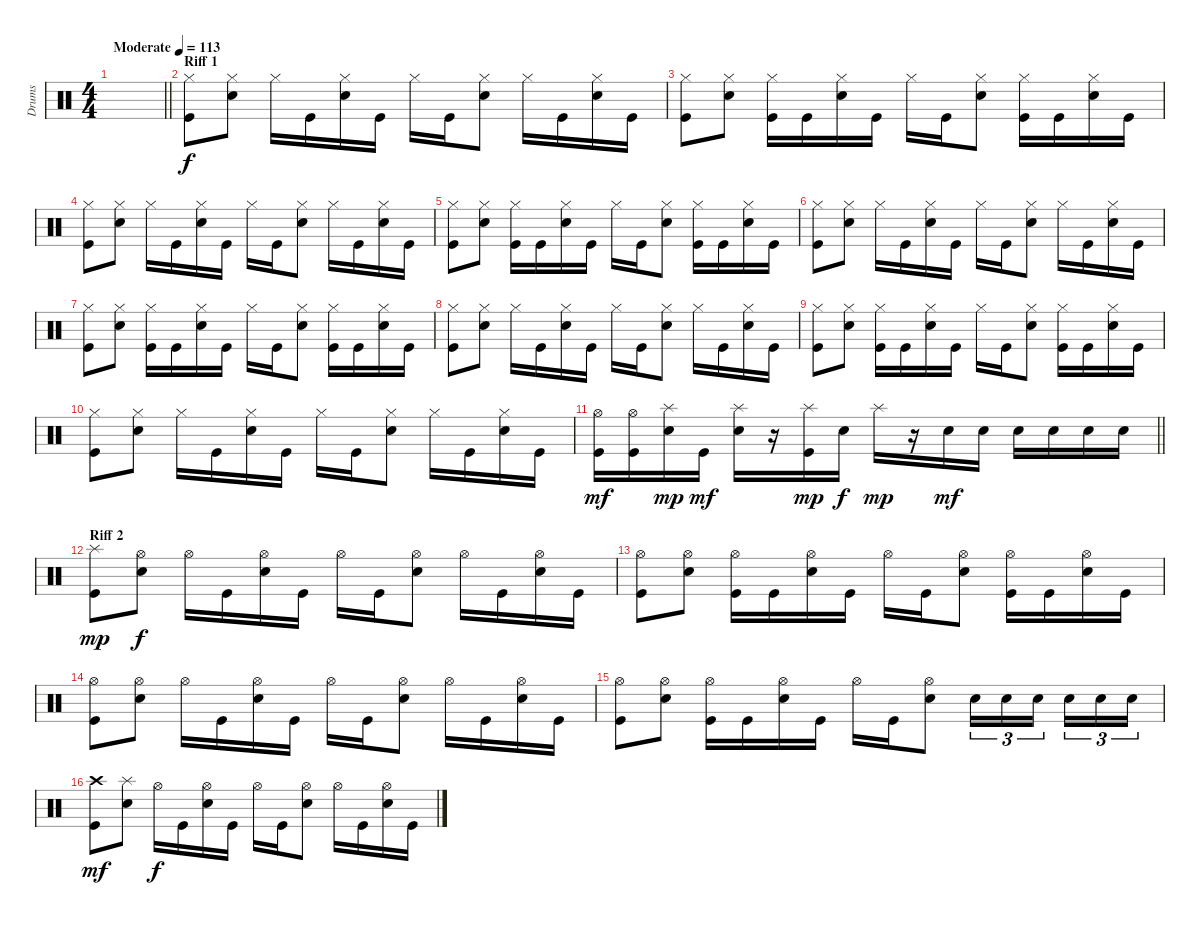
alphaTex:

\track ("Drums" "Drums") {instrument percussion}
\staff {score}
\articulation defaults
\ts (4 4)
\tempo (113 "Moderate")
\clef neutral
\barLineRight lightlight
\ks c
|
\section ("" "Riff 1")
("Hi-Hat (closed)" "Kick (hit)").8 ("Hi-Hat (closed)" "Snare (hit) 2").8 "Hi-Hat (closed)".16 "Kick (hit)".16 ("Hi-Hat (closed)" "Snare (hit) 2").16 "Kick (hit)".16 "Hi-Hat (closed)".16 "Kick (hit)".16 ("Hi-Hat (closed)" "Snare (hit) 2").8 "Hi-Hat (closed)".16 "Kick (hit)".16 ("Hi-Hat (closed)" "Snare (hit) 2").16 "Kick (hit)".16 |
("Hi-Hat (closed)" "Kick (hit)").8 ("Hi-Hat (closed)" "Snare (hit) 2").8 ("Hi-Hat (closed)" "Kick (hit)").16 "Kick (hit)".16 ("Hi-Hat (closed)" "Snare (hit) 2").16 "Kick (hit)".16 "Hi-Hat (closed)".16 "Kick (hit)".16 ("Hi-Hat (closed)" "Snare (hit) 2").8 ("Hi-Hat (closed)" "Kick (hit)").16 "Kick (hit)".16 ("Hi-Hat (closed)" "Snare (hit) 2").16 "Kick (hit)".16 |
("Hi-Hat (closed)" "Kick (hit)").8 ("Hi-Hat (closed)" "Snare (hit) 2").8 "Hi-Hat (closed)".16 "Kick (hit)".16 ("Hi-Hat (closed)" "Snare (hit) 2").16 "Kick (hit)".16 "Hi-Hat (closed)".16 "Kick (hit)".16 ("Hi-Hat (closed)" "Snare (hit) 2").8 "Hi-Hat (closed)".16 "Kick (hit)".16 ("Hi-Hat (closed)" "Snare (hit) 2").16 "Kick (hit)".16 |
("Hi-Hat (closed)" "Kick (hit)").8 ("Hi-Hat (closed)" "Snare (hit) 2").8 ("Hi-Hat (closed)" "Kick (hit)").16 "Kick (hit)".16 ("Hi-Hat (closed)" "Snare (hit) 2").16 "Kick (hit)".16 "Hi-Hat (closed)".16 "Kick (hit)".16 ("Hi-Hat (closed)" "Snare (hit) 2").8 ("Hi-Hat (closed)" "Kick (hit)").16 "Kick (hit)".16 ("Hi-Hat (closed)" "Snare (hit) 2").16 "Kick (hit)".16 |
("Hi-Hat (closed)" "Kick (hit)").8 ("Hi-Hat (closed)" "Snare (hit) 2").8 "Hi-Hat (closed)".16 "Kick (hit)".16 ("Hi-Hat (closed)" "Snare (hit) 2").16 "Kick (hit)".16 "Hi-Hat (closed)".16 "Kick (hit)".16 ("Hi-Hat (closed)" "Snare (hit) 2").8 "Hi-Hat (closed)".16 "Kick (hit)".16 ("Hi-Hat (closed)" "Snare (hit) 2").16 "Kick (hit)".16 |
("Hi-Hat (closed)" "Kick (hit)").8 ("Hi-Hat (closed)" "Snare (hit) 2").8 ("Hi-Hat (closed)" "Kick (hit)").16 "Kick (hit)".16 ("Hi-Hat (closed)" "Snare (hit) 2").16 "Kick (hit)".16 "Hi-Hat (closed)".16 "Kick (hit)".16 ("Hi-Hat (closed)" "Snare (hit) 2").8 ("Hi-Hat (closed)" "Kick (hit)").16 "Kick (hit)".16 ("Hi-Hat (closed)" "Snare (hit) 2").16 "Kick (hit)".16 |
("Hi-Hat (closed)" "Kick (hit)").8 ("Hi-Hat (closed)" "Snare (hit) 2").8 "Hi-Hat (closed)".16 "Kick (hit)".16 ("Hi-Hat (closed)" "Snare (hit) 2").16 "Kick (hit)".16 "Hi-Hat (closed)".16 "Kick (hit)".16 ("Hi-Hat (closed)" "Snare (hit) 2").8 "Hi-Hat (closed)".16 "Kick (hit)".16 ("Hi-Hat (closed)" "Snare (hit) 2").16 "Kick (hit)".16 |
("Hi-Hat (closed)" "Kick (hit)").8 ("Hi-Hat (closed)" "Snare (hit) 2").8 ("Hi-Hat (closed)" "Kick (hit)").16 "Kick (hit)".16 ("Hi-Hat (closed)" "Snare (hit) 2").16 "Kick (hit)".16 "Hi-Hat (closed)".16 "Kick (hit)".16 ("Hi-Hat (closed)" "Snare (hit) 2").8 ("Hi-Hat (closed)" "Kick (hit)").16 "Kick (hit)".16 ("Hi-Hat (closed)" "Snare (hit) 2").16 "Kick (hit)".16 |
("Hi-Hat (closed)" "Kick (hit)").8 ("Hi-Hat (closed)" "Snare (hit) 2").8 "Hi-Hat (closed)".16 "Kick (hit)".16 ("Hi-Hat (closed)" "Snare (hit) 2").16 "Kick (hit)".16 "Hi-Hat (closed)".16 "Kick (hit)".16 ("Hi-Hat (closed)" "Snare (hit) 2").8 "Hi-Hat (closed)".16 "Kick (hit)".16 ("Hi-Hat (closed)" "Snare (hit) 2").16 "Kick (hit)".16 |
\barLineRight lightlight
("Hi-Hat (open)" "Kick (hit)").16{dy mf} ("Hi-Hat (open)" "Kick (hit)").16 ("Splash (hit)" "Snare (hit) 2").16{dy mp} "Kick (hit)".16{dy mf} ("Splash (hit)" "Snare (hit) 2").16 r.16 ("Splash (hit)" "Kick (hit)").16{dy mp} "Snare (hit) 2".16{dy f} "Splash (hit)".16{dy mp} r.16 "Snare (hit) 2".16{dy mf} "Snare (hit) 2".16 "Snare (hit) 2".16 "Snare (hit) 2".16 "Snare (hit) 2".16 "Snare (hit) 2".16 |
\section ("" "Riff 2")
("Splash (hit)" "Kick (hit)").8{dy mp} ("Hi-Hat (open)" "Snare (hit) 2").8{dy f} "Hi-Hat (open)".16 "Kick (hit)".16 ("Hi-Hat (open)" "Snare (hit) 2").16 "Kick (hit)".16 "Hi-Hat (open)".16 "Kick (hit)".16 ("Hi-Hat (open)" "Snare (hit) 2").8 "Hi-Hat (open)".16 "Kick (hit)".16 ("Hi-Hat (open)" "Snare (hit) 2").16 "Kick (hit)".16 |
("Hi-Hat (open)" "Kick (hit)").8 ("Hi-Hat (open)" "Snare (hit) 2").8 ("Hi-Hat (open)" "Kick (hit)").16 "Kick (hit)".16 ("Hi-Hat (open)" "Snare (hit) 2").16 "Kick (hit)".16 "Hi-Hat (open)".16 "Kick (hit)".16 ("Hi-Hat (open)" "Snare (hit) 2").8 ("Hi-Hat (open)" "Kick (hit)").16 "Kick (hit)".16 ("Hi-Hat (open)" "Snare (hit) 2").16 "Kick (hit)".16 |
("Hi-Hat (open)" "Kick (hit)").8 ("Hi-Hat (open)" "Snare (hit) 2").8 "Hi-Hat (open)".16 "Kick (hit)".16 ("Hi-Hat (open)" "Snare (hit) 2").16 "Kick (hit)".16 "Hi-Hat (open)".16 "Kick (hit)".16 ("Hi-Hat (open)" "Snare (hit) 2").8 "Hi-Hat (open)".16 "Kick (hit)".16 ("Hi-Hat (open)" "Snare (hit) 2").16 "Kick (hit)".16 |
("Hi-Hat (open)" "Kick (hit)").8 ("Hi-Hat (open)" "Snare (hit) 2").8 ("Hi-Hat (open)" "Kick (hit)").16 "Kick (hit)".16 ("Hi-Hat (open)" "Snare (hit) 2").16 "Kick (hit)".16 "Hi-Hat (open)".16 "Kick (hit)".16 ("Hi-Hat (open)" "Snare (hit) 2").8 "Snare (hit) 2".16{tu (3 2)} "Snare (hit) 2".16{tu (3 2)} "Snare (hit) 2".16{tu (3 2) beam splitsecondary} "Snare (hit) 2".16{tu (3 2)} "Snare (hit) 2".16{tu (3 2)} "Snare (hit) 2".16{tu (3 2)} |
("Crash high (hit)" "Kick (hit)").8{dy mf} ("Splash (hit)" "Snare (hit) 2").8 "Hi-Hat (open)".16{dy f} "Kick (hit)".16 ("Hi-Hat (open)" "Snare (hit) 2").16 "Kick (hit)".16 "Hi-Hat (open)".16 "Kick (hit)".16 ("Hi-Hat (open)" "Snare (hit) 2").8 "Hi-Hat (open)".16 "Kick (hit)".16 ("Hi-Hat (open)" "Snare (hit) 2").16 "Kick (hit)".16
